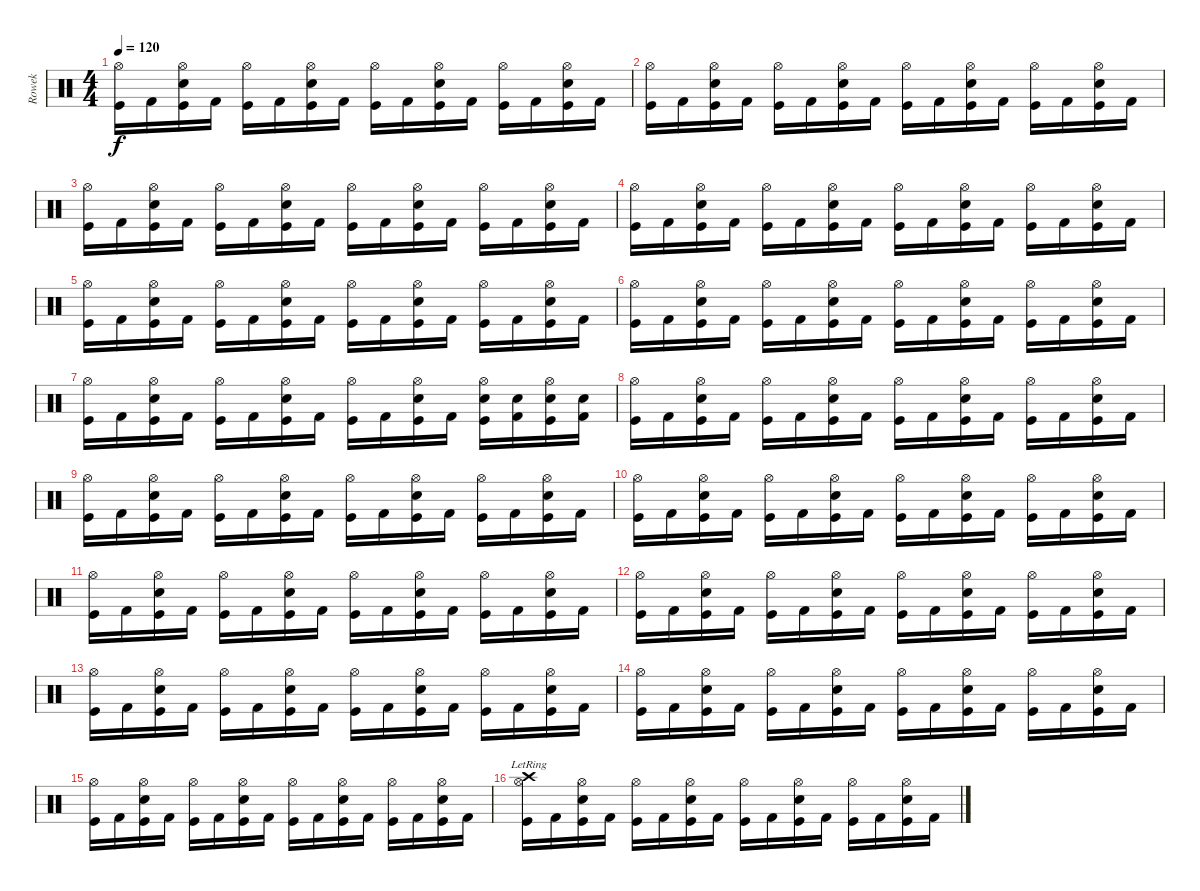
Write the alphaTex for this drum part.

\track ("Rowek" "Rowek") {instrument percussion}
\staff {score}
\articulation defaults
\ts (4 4)
\tempo 120
\clef neutral
\ks c
("Hi-Hat (open)" "Kick (hit)").16{dy f} "Kick (hit) 2".16 ("Hi-Hat (open)" "Snare (hit) 2" "Kick (hit)").16 "Kick (hit) 2".16 ("Hi-Hat (open)" "Kick (hit)").16 "Kick (hit) 2".16 ("Hi-Hat (open)" "Snare (hit) 2" "Kick (hit)").16 "Kick (hit) 2".16 ("Hi-Hat (open)" "Kick (hit)").16 "Kick (hit) 2".16 ("Hi-Hat (open)" "Snare (hit) 2" "Kick (hit)").16 "Kick (hit) 2".16 ("Hi-Hat (open)" "Kick (hit)").16 "Kick (hit) 2".16 ("Hi-Hat (open)" "Snare (hit) 2" "Kick (hit)").16 "Kick (hit) 2".16 |
("Hi-Hat (open)" "Kick (hit)").16 "Kick (hit) 2".16 ("Hi-Hat (open)" "Snare (hit) 2" "Kick (hit)").16 "Kick (hit) 2".16 ("Hi-Hat (open)" "Kick (hit)").16 "Kick (hit) 2".16 ("Hi-Hat (open)" "Snare (hit) 2" "Kick (hit)").16 "Kick (hit) 2".16 ("Hi-Hat (open)" "Kick (hit)").16 "Kick (hit) 2".16 ("Hi-Hat (open)" "Snare (hit) 2" "Kick (hit)").16 "Kick (hit) 2".16 ("Hi-Hat (open)" "Kick (hit)").16 "Kick (hit) 2".16 ("Hi-Hat (open)" "Snare (hit) 2" "Kick (hit)").16 "Kick (hit) 2".16 |
("Hi-Hat (open)" "Kick (hit)").16 "Kick (hit) 2".16 ("Hi-Hat (open)" "Snare (hit) 2" "Kick (hit)").16 "Kick (hit) 2".16 ("Hi-Hat (open)" "Kick (hit)").16 "Kick (hit) 2".16 ("Hi-Hat (open)" "Snare (hit) 2" "Kick (hit)").16 "Kick (hit) 2".16 ("Hi-Hat (open)" "Kick (hit)").16 "Kick (hit) 2".16 ("Hi-Hat (open)" "Snare (hit) 2" "Kick (hit)").16 "Kick (hit) 2".16 ("Hi-Hat (open)" "Kick (hit)").16 "Kick (hit) 2".16 ("Hi-Hat (open)" "Snare (hit) 2" "Kick (hit)").16 "Kick (hit) 2".16 |
("Hi-Hat (open)" "Kick (hit)").16 "Kick (hit) 2".16 ("Hi-Hat (open)" "Snare (hit) 2" "Kick (hit)").16 "Kick (hit) 2".16 ("Hi-Hat (open)" "Kick (hit)").16 "Kick (hit) 2".16 ("Hi-Hat (open)" "Snare (hit) 2" "Kick (hit)").16 "Kick (hit) 2".16 ("Hi-Hat (open)" "Kick (hit)").16 "Kick (hit) 2".16 ("Hi-Hat (open)" "Snare (hit) 2" "Kick (hit)").16 "Kick (hit) 2".16 ("Hi-Hat (open)" "Kick (hit)").16 "Kick (hit) 2".16 ("Hi-Hat (open)" "Snare (hit) 2" "Kick (hit)").16 "Kick (hit) 2".16 |
("Hi-Hat (open)" "Kick (hit)").16 "Kick (hit) 2".16 ("Hi-Hat (open)" "Snare (hit) 2" "Kick (hit)").16 "Kick (hit) 2".16 ("Hi-Hat (open)" "Kick (hit)").16 "Kick (hit) 2".16 ("Hi-Hat (open)" "Snare (hit) 2" "Kick (hit)").16 "Kick (hit) 2".16 ("Hi-Hat (open)" "Kick (hit)").16 "Kick (hit) 2".16 ("Hi-Hat (open)" "Snare (hit) 2" "Kick (hit)").16 "Kick (hit) 2".16 ("Hi-Hat (open)" "Kick (hit)").16 "Kick (hit) 2".16 ("Hi-Hat (open)" "Snare (hit) 2" "Kick (hit)").16 "Kick (hit) 2".16 |
("Hi-Hat (open)" "Kick (hit)").16 "Kick (hit) 2".16 ("Hi-Hat (open)" "Snare (hit) 2" "Kick (hit)").16 "Kick (hit) 2".16 ("Hi-Hat (open)" "Kick (hit)").16 "Kick (hit) 2".16 ("Hi-Hat (open)" "Snare (hit) 2" "Kick (hit)").16 "Kick (hit) 2".16 ("Hi-Hat (open)" "Kick (hit)").16 "Kick (hit) 2".16 ("Hi-Hat (open)" "Snare (hit) 2" "Kick (hit)").16 "Kick (hit) 2".16 ("Hi-Hat (open)" "Kick (hit)").16 "Kick (hit) 2".16 ("Hi-Hat (open)" "Snare (hit) 2" "Kick (hit)").16 "Kick (hit) 2".16 |
("Hi-Hat (open)" "Kick (hit)").16 "Kick (hit) 2".16 ("Hi-Hat (open)" "Snare (hit) 2" "Kick (hit)").16 "Kick (hit) 2".16 ("Hi-Hat (open)" "Kick (hit)").16 "Kick (hit) 2".16 ("Hi-Hat (open)" "Snare (hit) 2" "Kick (hit)").16 "Kick (hit) 2".16 ("Hi-Hat (open)" "Kick (hit)").16 "Kick (hit) 2".16 ("Hi-Hat (open)" "Snare (hit) 2" "Kick (hit)").16 "Kick (hit) 2".16 ("Hi-Hat (open)" "Snare (hit) 2" "Kick (hit)").16 ("Snare (hit) 2" "Kick (hit) 2").16 ("Hi-Hat (open)" "Snare (hit) 2" "Kick (hit)").16 ("Snare (hit) 2" "Kick (hit) 2").16 |
("Hi-Hat (open)" "Kick (hit)").16 "Kick (hit) 2".16 ("Hi-Hat (open)" "Snare (hit) 2" "Kick (hit)").16 "Kick (hit) 2".16 ("Hi-Hat (open)" "Kick (hit)").16 "Kick (hit) 2".16 ("Hi-Hat (open)" "Snare (hit) 2" "Kick (hit)").16 "Kick (hit) 2".16 ("Hi-Hat (open)" "Kick (hit)").16 "Kick (hit) 2".16 ("Hi-Hat (open)" "Snare (hit) 2" "Kick (hit)").16 "Kick (hit) 2".16 ("Hi-Hat (open)" "Kick (hit)").16 "Kick (hit) 2".16 ("Hi-Hat (open)" "Snare (hit) 2" "Kick (hit)").16 "Kick (hit) 2".16 |
("Hi-Hat (open)" "Kick (hit)").16 "Kick (hit) 2".16 ("Hi-Hat (open)" "Snare (hit) 2" "Kick (hit)").16 "Kick (hit) 2".16 ("Hi-Hat (open)" "Kick (hit)").16 "Kick (hit) 2".16 ("Hi-Hat (open)" "Snare (hit) 2" "Kick (hit)").16 "Kick (hit) 2".16 ("Hi-Hat (open)" "Kick (hit)").16 "Kick (hit) 2".16 ("Hi-Hat (open)" "Snare (hit) 2" "Kick (hit)").16 "Kick (hit) 2".16 ("Hi-Hat (open)" "Kick (hit)").16 "Kick (hit) 2".16 ("Hi-Hat (open)" "Snare (hit) 2" "Kick (hit)").16 "Kick (hit) 2".16 |
("Hi-Hat (open)" "Kick (hit)").16 "Kick (hit) 2".16 ("Hi-Hat (open)" "Snare (hit) 2" "Kick (hit)").16 "Kick (hit) 2".16 ("Hi-Hat (open)" "Kick (hit)").16 "Kick (hit) 2".16 ("Hi-Hat (open)" "Snare (hit) 2" "Kick (hit)").16 "Kick (hit) 2".16 ("Hi-Hat (open)" "Kick (hit)").16 "Kick (hit) 2".16 ("Hi-Hat (open)" "Snare (hit) 2" "Kick (hit)").16 "Kick (hit) 2".16 ("Hi-Hat (open)" "Kick (hit)").16 "Kick (hit) 2".16 ("Hi-Hat (open)" "Snare (hit) 2" "Kick (hit)").16 "Kick (hit) 2".16 |
("Hi-Hat (open)" "Kick (hit)").16 "Kick (hit) 2".16 ("Hi-Hat (open)" "Snare (hit) 2" "Kick (hit)").16 "Kick (hit) 2".16 ("Hi-Hat (open)" "Kick (hit)").16 "Kick (hit) 2".16 ("Hi-Hat (open)" "Snare (hit) 2" "Kick (hit)").16 "Kick (hit) 2".16 ("Hi-Hat (open)" "Kick (hit)").16 "Kick (hit) 2".16 ("Hi-Hat (open)" "Snare (hit) 2" "Kick (hit)").16 "Kick (hit) 2".16 ("Hi-Hat (open)" "Kick (hit)").16 "Kick (hit) 2".16 ("Hi-Hat (open)" "Snare (hit) 2" "Kick (hit)").16 "Kick (hit) 2".16 |
("Hi-Hat (open)" "Kick (hit)").16 "Kick (hit) 2".16 ("Hi-Hat (open)" "Snare (hit) 2" "Kick (hit)").16 "Kick (hit) 2".16 ("Hi-Hat (open)" "Kick (hit)").16 "Kick (hit) 2".16 ("Hi-Hat (open)" "Snare (hit) 2" "Kick (hit)").16 "Kick (hit) 2".16 ("Hi-Hat (open)" "Kick (hit)").16 "Kick (hit) 2".16 ("Hi-Hat (open)" "Snare (hit) 2" "Kick (hit)").16 "Kick (hit) 2".16 ("Hi-Hat (open)" "Kick (hit)").16 "Kick (hit) 2".16 ("Hi-Hat (open)" "Snare (hit) 2" "Kick (hit)").16 "Kick (hit) 2".16 |
("Hi-Hat (open)" "Kick (hit)").16 "Kick (hit) 2".16 ("Hi-Hat (open)" "Snare (hit) 2" "Kick (hit)").16 "Kick (hit) 2".16 ("Hi-Hat (open)" "Kick (hit)").16 "Kick (hit) 2".16 ("Hi-Hat (open)" "Snare (hit) 2" "Kick (hit)").16 "Kick (hit) 2".16 ("Hi-Hat (open)" "Kick (hit)").16 "Kick (hit) 2".16 ("Hi-Hat (open)" "Snare (hit) 2" "Kick (hit)").16 "Kick (hit) 2".16 ("Hi-Hat (open)" "Kick (hit)").16 "Kick (hit) 2".16 ("Hi-Hat (open)" "Snare (hit) 2" "Kick (hit)").16 "Kick (hit) 2".16 |
("Hi-Hat (open)" "Kick (hit)").16 "Kick (hit) 2".16 ("Hi-Hat (open)" "Snare (hit) 2" "Kick (hit)").16 "Kick (hit) 2".16 ("Hi-Hat (open)" "Kick (hit)").16 "Kick (hit) 2".16 ("Hi-Hat (open)" "Snare (hit) 2" "Kick (hit)").16 "Kick (hit) 2".16 ("Hi-Hat (open)" "Kick (hit)").16 "Kick (hit) 2".16 ("Hi-Hat (open)" "Snare (hit) 2" "Kick (hit)").16 "Kick (hit) 2".16 ("Hi-Hat (open)" "Kick (hit)").16 "Kick (hit) 2".16 ("Hi-Hat (open)" "Snare (hit) 2" "Kick (hit)").16 "Kick (hit) 2".16 |
("Hi-Hat (open)" "Kick (hit)").16 "Kick (hit) 2".16 ("Hi-Hat (open)" "Snare (hit) 2" "Kick (hit)").16 "Kick (hit) 2".16 ("Hi-Hat (open)" "Kick (hit)").16 "Kick (hit) 2".16 ("Hi-Hat (open)" "Snare (hit) 2" "Kick (hit)").16 "Kick (hit) 2".16 ("Hi-Hat (open)" "Kick (hit)").16 "Kick (hit) 2".16 ("Hi-Hat (open)" "Snare (hit) 2" "Kick (hit)").16 "Kick (hit) 2".16 ("Hi-Hat (open)" "Kick (hit)").16 "Kick (hit) 2".16 ("Hi-Hat (open)" "Snare (hit) 2" "Kick (hit)").16 "Kick (hit) 2".16 |
("Hi-Hat (open)" "Crash high (hit)"{lr} "Kick (hit)").16 "Kick (hit) 2".16 ("Hi-Hat (open)" "Snare (hit) 2" "Kick (hit)").16 "Kick (hit) 2".16 ("Hi-Hat (open)" "Kick (hit)").16 "Kick (hit) 2".16 ("Hi-Hat (open)" "Snare (hit) 2" "Kick (hit)").16 "Kick (hit) 2".16 ("Hi-Hat (open)" "Kick (hit)").16 "Kick (hit) 2".16 ("Hi-Hat (open)" "Snare (hit) 2" "Kick (hit)").16 "Kick (hit) 2".16 ("Hi-Hat (open)" "Kick (hit)").16 "Kick (hit) 2".16 ("Hi-Hat (open)" "Snare (hit) 2" "Kick (hit)").16 "Kick (hit) 2".16
